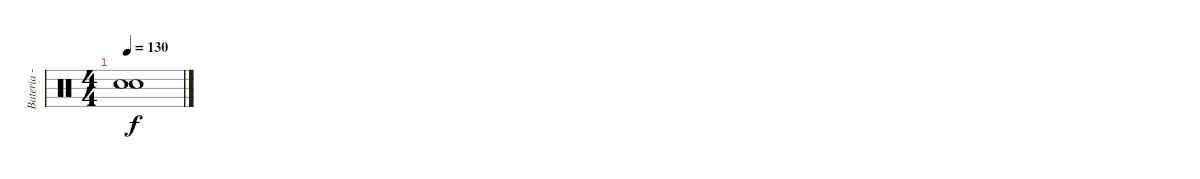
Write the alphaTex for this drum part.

\track ("Bateria - Drums" "Bateria - ") {instrument percussion}
\staff {score}
\articulation defaults
\ts (4 4)
\tempo 130
\clef neutral
\ks c
("Snare (hit)"{t} "Snare (hit)"{t}).1{dy f}
